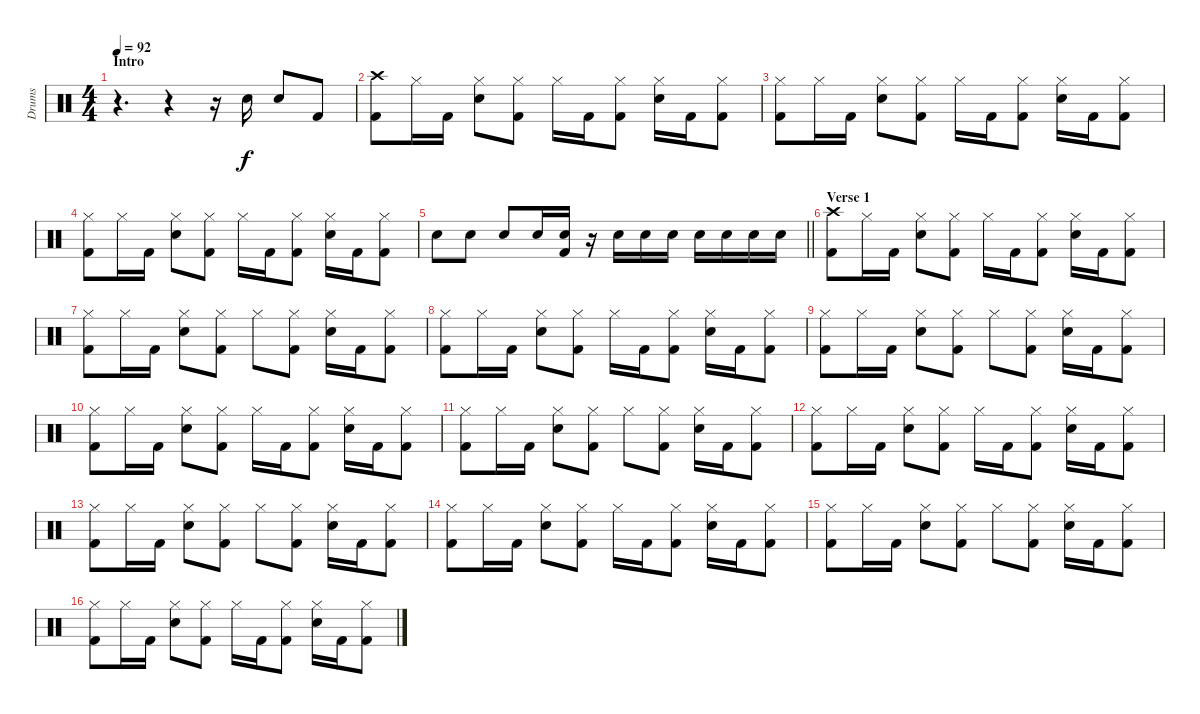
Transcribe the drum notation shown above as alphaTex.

\track ("Drums" "Drums") {instrument percussion}
\staff {score}
\articulation defaults
\ts (4 4)
\section ("" "Intro")
\tempo 92
\clef neutral
\ks c
r.4{d dy f} r.4 r.16 "Electric Snare (hit)".16 "Electric Snare (hit)".8 "Kick (hit) 2".8 |
("Crash high (hit)" "Kick (hit) 2").8 "Hi-Hat (closed)".16 "Kick (hit) 2".16 ("Hi-Hat (closed)" "Electric Snare (hit)").8 ("Hi-Hat (closed)" "Kick (hit) 2").8 "Hi-Hat (closed)".16 "Kick (hit) 2".16 ("Hi-Hat (closed)" "Kick (hit) 2").8 ("Hi-Hat (closed)" "Electric Snare (hit)").16 "Kick (hit) 2".16 ("Hi-Hat (closed)" "Kick (hit) 2").8 |
("Hi-Hat (closed)" "Kick (hit) 2").8 "Hi-Hat (closed)".16 "Kick (hit) 2".16 ("Hi-Hat (closed)" "Electric Snare (hit)").8 ("Hi-Hat (closed)" "Kick (hit) 2").8 "Hi-Hat (closed)".16 "Kick (hit) 2".16 ("Hi-Hat (closed)" "Kick (hit) 2").8 ("Hi-Hat (closed)" "Electric Snare (hit)").16 "Kick (hit) 2".16 ("Hi-Hat (closed)" "Kick (hit) 2").8 |
("Hi-Hat (closed)" "Kick (hit) 2").8 "Hi-Hat (closed)".16 "Kick (hit) 2".16 ("Hi-Hat (closed)" "Electric Snare (hit)").8 ("Hi-Hat (closed)" "Kick (hit) 2").8 "Hi-Hat (closed)".16 "Kick (hit) 2".16 ("Hi-Hat (closed)" "Kick (hit) 2").8 ("Hi-Hat (closed)" "Electric Snare (hit)").16 "Kick (hit) 2".16 ("Hi-Hat (closed)" "Kick (hit) 2").8 |
\barLineRight lightlight "Electric Snare (hit)".8 "Electric Snare (hit)".8 "Electric Snare (hit)".8 "Electric Snare (hit)".16
("Electric Snare (hit)" "Kick (hit) 2").16 r.16 "Electric Snare (hit)".16 "Electric Snare (hit)".16 "Electric Snare (hit)".16 "Electric Snare (hit)".16 "Electric Snare (hit)".16 "Electric Snare (hit)".16 "Electric Snare (hit)".16 |
\section ("" "Verse 1")
("Crash high (hit)" "Kick (hit) 2").8 "Hi-Hat (closed)".16 "Kick (hit) 2".16 ("Hi-Hat (closed)" "Electric Snare (hit)").8 ("Hi-Hat (closed)" "Kick (hit) 2").8 "Hi-Hat (closed)".16 "Kick (hit) 2".16 ("Hi-Hat (closed)" "Kick (hit) 2").8 ("Hi-Hat (closed)" "Electric Snare (hit)").16 "Kick (hit) 2".16 ("Hi-Hat (closed)" "Kick (hit) 2").8 |
("Hi-Hat (closed)" "Kick (hit) 2").8 "Hi-Hat (closed)".16 "Kick (hit) 2".16 ("Hi-Hat (closed)" "Electric Snare (hit)").8 ("Hi-Hat (closed)" "Kick (hit) 2").8 "Hi-Hat (closed)".8 ("Hi-Hat (closed)" "Kick (hit) 2").8 ("Hi-Hat (closed)" "Electric Snare (hit)").16 "Kick (hit) 2".16 ("Hi-Hat (closed)" "Kick (hit) 2").8 |
("Hi-Hat (closed)" "Kick (hit) 2").8 "Hi-Hat (closed)".16 "Kick (hit) 2".16 ("Hi-Hat (closed)" "Electric Snare (hit)").8 ("Hi-Hat (closed)" "Kick (hit) 2").8 "Hi-Hat (closed)".16 "Kick (hit) 2".16 ("Hi-Hat (closed)" "Kick (hit) 2").8 ("Hi-Hat (closed)" "Electric Snare (hit)").16 "Kick (hit) 2".16 ("Hi-Hat (closed)" "Kick (hit) 2").8 |
("Hi-Hat (closed)" "Kick (hit) 2").8 "Hi-Hat (closed)".16 "Kick (hit) 2".16 ("Hi-Hat (closed)" "Electric Snare (hit)").8 ("Hi-Hat (closed)" "Kick (hit) 2").8 "Hi-Hat (closed)".8 ("Hi-Hat (closed)" "Kick (hit) 2").8 ("Hi-Hat (closed)" "Electric Snare (hit)").16 "Kick (hit) 2".16 ("Hi-Hat (closed)" "Kick (hit) 2").8 |
("Hi-Hat (closed)" "Kick (hit) 2").8 "Hi-Hat (closed)".16 "Kick (hit) 2".16 ("Hi-Hat (closed)" "Electric Snare (hit)").8 ("Hi-Hat (closed)" "Kick (hit) 2").8 "Hi-Hat (closed)".16 "Kick (hit) 2".16 ("Hi-Hat (closed)" "Kick (hit) 2").8 ("Hi-Hat (closed)" "Electric Snare (hit)").16 "Kick (hit) 2".16 ("Hi-Hat (closed)" "Kick (hit) 2").8 |
("Hi-Hat (closed)" "Kick (hit) 2").8 "Hi-Hat (closed)".16 "Kick (hit) 2".16 ("Hi-Hat (closed)" "Electric Snare (hit)").8 ("Hi-Hat (closed)" "Kick (hit) 2").8 "Hi-Hat (closed)".8 ("Hi-Hat (closed)" "Kick (hit) 2").8 ("Hi-Hat (closed)" "Electric Snare (hit)").16 "Kick (hit) 2".16 ("Hi-Hat (closed)" "Kick (hit) 2").8 |
("Hi-Hat (closed)" "Kick (hit) 2").8 "Hi-Hat (closed)".16 "Kick (hit) 2".16 ("Hi-Hat (closed)" "Electric Snare (hit)").8 ("Hi-Hat (closed)" "Kick (hit) 2").8 "Hi-Hat (closed)".16 "Kick (hit) 2".16 ("Hi-Hat (closed)" "Kick (hit) 2").8 ("Hi-Hat (closed)" "Electric Snare (hit)").16 "Kick (hit) 2".16 ("Hi-Hat (closed)" "Kick (hit) 2").8 |
("Hi-Hat (closed)" "Kick (hit) 2").8 "Hi-Hat (closed)".16 "Kick (hit) 2".16 ("Hi-Hat (closed)" "Electric Snare (hit)").8 ("Hi-Hat (closed)" "Kick (hit) 2").8 "Hi-Hat (closed)".8 ("Hi-Hat (closed)" "Kick (hit) 2").8 ("Hi-Hat (closed)" "Electric Snare (hit)").16 "Kick (hit) 2".16 ("Hi-Hat (closed)" "Kick (hit) 2").8 |
("Hi-Hat (closed)" "Kick (hit) 2").8 "Hi-Hat (closed)".16 "Kick (hit) 2".16 ("Hi-Hat (closed)" "Electric Snare (hit)").8 ("Hi-Hat (closed)" "Kick (hit) 2").8 "Hi-Hat (closed)".16 "Kick (hit) 2".16 ("Hi-Hat (closed)" "Kick (hit) 2").8 ("Hi-Hat (closed)" "Electric Snare (hit)").16 "Kick (hit) 2".16 ("Hi-Hat (closed)" "Kick (hit) 2").8 |
("Hi-Hat (closed)" "Kick (hit) 2").8 "Hi-Hat (closed)".16 "Kick (hit) 2".16 ("Hi-Hat (closed)" "Electric Snare (hit)").8 ("Hi-Hat (closed)" "Kick (hit) 2").8 "Hi-Hat (closed)".8 ("Hi-Hat (closed)" "Kick (hit) 2").8 ("Hi-Hat (closed)" "Electric Snare (hit)").16 "Kick (hit) 2".16 ("Hi-Hat (closed)" "Kick (hit) 2").8 |
("Hi-Hat (closed)" "Kick (hit) 2").8 "Hi-Hat (closed)".16 "Kick (hit) 2".16 ("Hi-Hat (closed)" "Electric Snare (hit)").8 ("Hi-Hat (closed)" "Kick (hit) 2").8 "Hi-Hat (closed)".16 "Kick (hit) 2".16 ("Hi-Hat (closed)" "Kick (hit) 2").8 ("Hi-Hat (closed)" "Electric Snare (hit)").16 "Kick (hit) 2".16 ("Hi-Hat (closed)" "Kick (hit) 2").8
